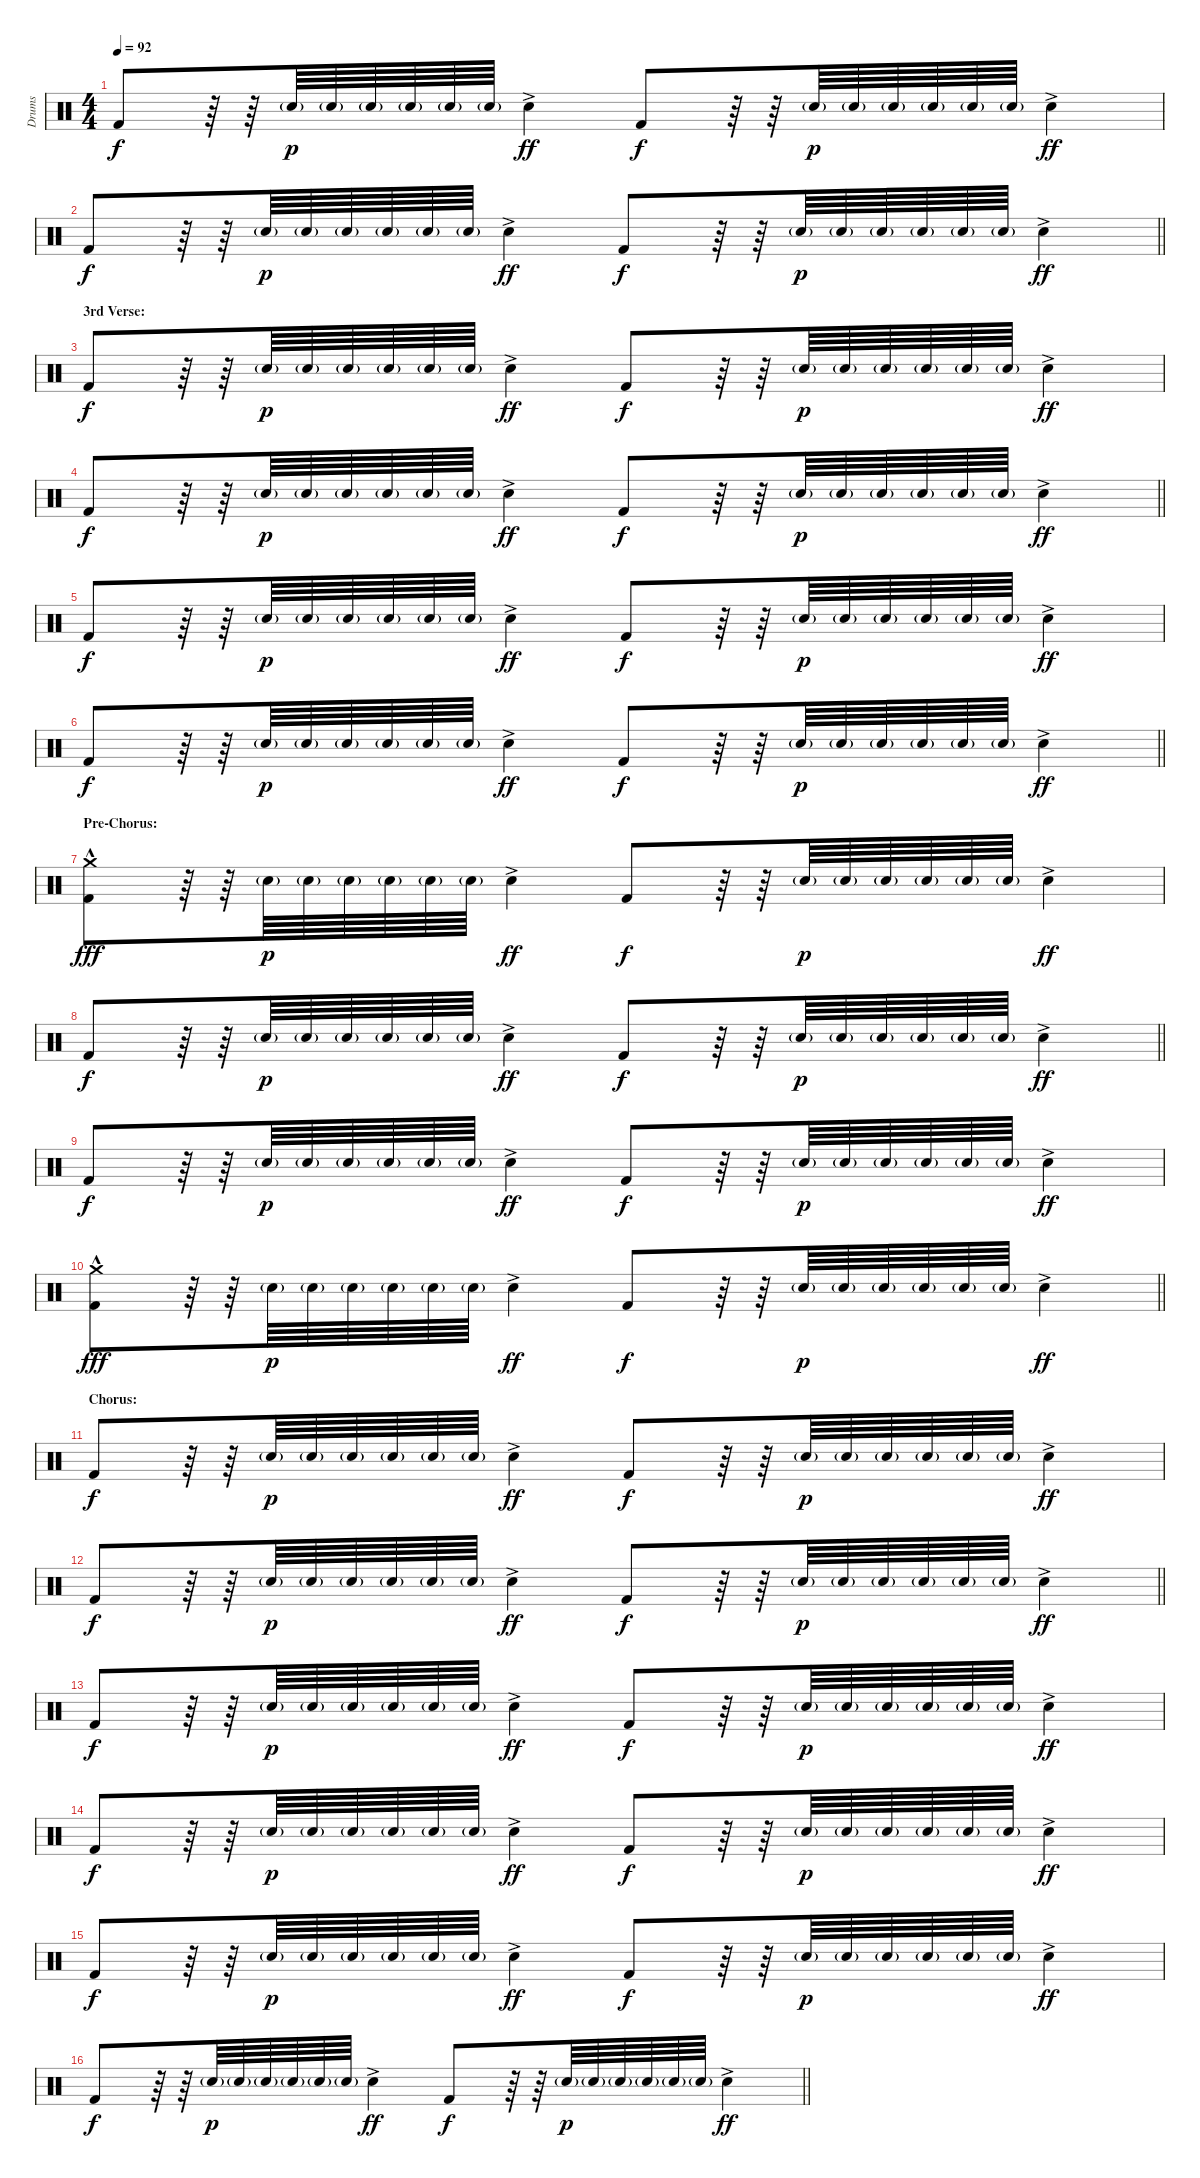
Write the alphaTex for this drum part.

\track ("Drums" "Drums") {instrument percussion}
\staff {score}
\articulation defaults
\ts (4 4)
\tempo 92
\clef neutral
\ks c "Kick (hit) 2".8{dy f}
r.64 r.64 "Snare (hit) 2"{g}.64{dy p} "Snare (hit) 2"{g}.64 "Snare (hit) 2"{g}.64 "Snare (hit) 2"{g}.64 "Snare (hit) 2"{g}.64 "Snare (hit) 2"{g}.64 "Snare (hit) 2"{ac}.4{dy ff} "Kick (hit) 2".8{dy f} r.64 r.64 "Snare (hit) 2"{g}.64{dy p} "Snare (hit) 2"{g}.64 "Snare (hit) 2"{g}.64 "Snare (hit) 2"{g}.64 "Snare (hit) 2"{g}.64 "Snare (hit) 2"{g}.64 "Snare (hit) 2"{ac}.4{dy ff} |
\barLineRight lightlight "Kick (hit) 2".8{dy f}
r.64 r.64 "Snare (hit) 2"{g}.64{dy p} "Snare (hit) 2"{g}.64 "Snare (hit) 2"{g}.64 "Snare (hit) 2"{g}.64 "Snare (hit) 2"{g}.64 "Snare (hit) 2"{g}.64 "Snare (hit) 2"{ac}.4{dy ff} "Kick (hit) 2".8{dy f} r.64 r.64 "Snare (hit) 2"{g}.64{dy p} "Snare (hit) 2"{g}.64 "Snare (hit) 2"{g}.64 "Snare (hit) 2"{g}.64 "Snare (hit) 2"{g}.64 "Snare (hit) 2"{g}.64 "Snare (hit) 2"{ac}.4{dy ff} |
\section ("" "3rd Verse:")
"Kick (hit) 2".8{dy f} r.64 r.64 "Snare (hit) 2"{g}.64{dy p} "Snare (hit) 2"{g}.64 "Snare (hit) 2"{g}.64 "Snare (hit) 2"{g}.64 "Snare (hit) 2"{g}.64 "Snare (hit) 2"{g}.64 "Snare (hit) 2"{ac}.4{dy ff} "Kick (hit) 2".8{dy f} r.64 r.64 "Snare (hit) 2"{g}.64{dy p} "Snare (hit) 2"{g}.64 "Snare (hit) 2"{g}.64 "Snare (hit) 2"{g}.64 "Snare (hit) 2"{g}.64 "Snare (hit) 2"{g}.64 "Snare (hit) 2"{ac}.4{dy ff} |
\barLineRight lightlight "Kick (hit) 2".8{dy f}
r.64 r.64 "Snare (hit) 2"{g}.64{dy p} "Snare (hit) 2"{g}.64 "Snare (hit) 2"{g}.64 "Snare (hit) 2"{g}.64 "Snare (hit) 2"{g}.64 "Snare (hit) 2"{g}.64 "Snare (hit) 2"{ac}.4{dy ff} "Kick (hit) 2".8{dy f} r.64 r.64 "Snare (hit) 2"{g}.64{dy p} "Snare (hit) 2"{g}.64 "Snare (hit) 2"{g}.64 "Snare (hit) 2"{g}.64 "Snare (hit) 2"{g}.64 "Snare (hit) 2"{g}.64 "Snare (hit) 2"{ac}.4{dy ff} |
"Kick (hit) 2".8{dy f} r.64 r.64 "Snare (hit) 2"{g}.64{dy p} "Snare (hit) 2"{g}.64 "Snare (hit) 2"{g}.64 "Snare (hit) 2"{g}.64 "Snare (hit) 2"{g}.64 "Snare (hit) 2"{g}.64 "Snare (hit) 2"{ac}.4{dy ff} "Kick (hit) 2".8{dy f} r.64 r.64 "Snare (hit) 2"{g}.64{dy p} "Snare (hit) 2"{g}.64 "Snare (hit) 2"{g}.64 "Snare (hit) 2"{g}.64 "Snare (hit) 2"{g}.64 "Snare (hit) 2"{g}.64 "Snare (hit) 2"{ac}.4{dy ff} |
\barLineRight lightlight "Kick (hit) 2".8{dy f}
r.64 r.64 "Snare (hit) 2"{g}.64{dy p} "Snare (hit) 2"{g}.64 "Snare (hit) 2"{g}.64 "Snare (hit) 2"{g}.64 "Snare (hit) 2"{g}.64 "Snare (hit) 2"{g}.64 "Snare (hit) 2"{ac}.4{dy ff} "Kick (hit) 2".8{dy f} r.64 r.64 "Snare (hit) 2"{g}.64{dy p} "Snare (hit) 2"{g}.64 "Snare (hit) 2"{g}.64 "Snare (hit) 2"{g}.64 "Snare (hit) 2"{g}.64 "Snare (hit) 2"{g}.64 "Snare (hit) 2"{ac}.4{dy ff} |
\section ("" "Pre-Chorus:")
("Crash medium (hit)"{hac} "Kick (hit) 2").8{dy fff} r.64 r.64 "Snare (hit) 2"{g}.64{dy p} "Snare (hit) 2"{g}.64 "Snare (hit) 2"{g}.64 "Snare (hit) 2"{g}.64 "Snare (hit) 2"{g}.64 "Snare (hit) 2"{g}.64 "Snare (hit) 2"{ac}.4{dy ff} "Kick (hit) 2".8{dy f} r.64 r.64 "Snare (hit) 2"{g}.64{dy p} "Snare (hit) 2"{g}.64 "Snare (hit) 2"{g}.64 "Snare (hit) 2"{g}.64 "Snare (hit) 2"{g}.64 "Snare (hit) 2"{g}.64 "Snare (hit) 2"{ac}.4{dy ff} |
\barLineRight lightlight "Kick (hit) 2".8{dy f}
r.64 r.64 "Snare (hit) 2"{g}.64{dy p} "Snare (hit) 2"{g}.64 "Snare (hit) 2"{g}.64 "Snare (hit) 2"{g}.64 "Snare (hit) 2"{g}.64 "Snare (hit) 2"{g}.64 "Snare (hit) 2"{ac}.4{dy ff} "Kick (hit) 2".8{dy f} r.64 r.64 "Snare (hit) 2"{g}.64{dy p} "Snare (hit) 2"{g}.64 "Snare (hit) 2"{g}.64 "Snare (hit) 2"{g}.64 "Snare (hit) 2"{g}.64 "Snare (hit) 2"{g}.64 "Snare (hit) 2"{ac}.4{dy ff} |
"Kick (hit) 2".8{dy f} r.64 r.64 "Snare (hit) 2"{g}.64{dy p} "Snare (hit) 2"{g}.64 "Snare (hit) 2"{g}.64 "Snare (hit) 2"{g}.64 "Snare (hit) 2"{g}.64 "Snare (hit) 2"{g}.64 "Snare (hit) 2"{ac}.4{dy ff} "Kick (hit) 2".8{dy f} r.64 r.64 "Snare (hit) 2"{g}.64{dy p} "Snare (hit) 2"{g}.64 "Snare (hit) 2"{g}.64 "Snare (hit) 2"{g}.64 "Snare (hit) 2"{g}.64 "Snare (hit) 2"{g}.64 "Snare (hit) 2"{ac}.4{dy ff} |
\barLineRight lightlight
("Crash medium (hit)"{hac} "Kick (hit) 2").8{dy fff} r.64 r.64 "Snare (hit) 2"{g}.64{dy p} "Snare (hit) 2"{g}.64 "Snare (hit) 2"{g}.64 "Snare (hit) 2"{g}.64 "Snare (hit) 2"{g}.64 "Snare (hit) 2"{g}.64 "Snare (hit) 2"{ac}.4{dy ff} "Kick (hit) 2".8{dy f} r.64 r.64 "Snare (hit) 2"{g}.64{dy p} "Snare (hit) 2"{g}.64 "Snare (hit) 2"{g}.64 "Snare (hit) 2"{g}.64 "Snare (hit) 2"{g}.64 "Snare (hit) 2"{g}.64 "Snare (hit) 2"{ac}.4{dy ff} |
\section ("" "Chorus:")
"Kick (hit) 2".8{dy f} r.64 r.64 "Snare (hit) 2"{g}.64{dy p} "Snare (hit) 2"{g}.64 "Snare (hit) 2"{g}.64 "Snare (hit) 2"{g}.64 "Snare (hit) 2"{g}.64 "Snare (hit) 2"{g}.64 "Snare (hit) 2"{ac}.4{dy ff} "Kick (hit) 2".8{dy f} r.64 r.64 "Snare (hit) 2"{g}.64{dy p} "Snare (hit) 2"{g}.64 "Snare (hit) 2"{g}.64 "Snare (hit) 2"{g}.64 "Snare (hit) 2"{g}.64 "Snare (hit) 2"{g}.64 "Snare (hit) 2"{ac}.4{dy ff} |
\barLineRight lightlight "Kick (hit) 2".8{dy f}
r.64 r.64 "Snare (hit) 2"{g}.64{dy p} "Snare (hit) 2"{g}.64 "Snare (hit) 2"{g}.64 "Snare (hit) 2"{g}.64 "Snare (hit) 2"{g}.64 "Snare (hit) 2"{g}.64 "Snare (hit) 2"{ac}.4{dy ff} "Kick (hit) 2".8{dy f} r.64 r.64 "Snare (hit) 2"{g}.64{dy p} "Snare (hit) 2"{g}.64 "Snare (hit) 2"{g}.64 "Snare (hit) 2"{g}.64 "Snare (hit) 2"{g}.64 "Snare (hit) 2"{g}.64 "Snare (hit) 2"{ac}.4{dy ff} |
"Kick (hit) 2".8{dy f} r.64 r.64 "Snare (hit) 2"{g}.64{dy p} "Snare (hit) 2"{g}.64 "Snare (hit) 2"{g}.64 "Snare (hit) 2"{g}.64 "Snare (hit) 2"{g}.64 "Snare (hit) 2"{g}.64 "Snare (hit) 2"{ac}.4{dy ff} "Kick (hit) 2".8{dy f} r.64 r.64 "Snare (hit) 2"{g}.64{dy p} "Snare (hit) 2"{g}.64 "Snare (hit) 2"{g}.64 "Snare (hit) 2"{g}.64 "Snare (hit) 2"{g}.64 "Snare (hit) 2"{g}.64 "Snare (hit) 2"{ac}.4{dy ff} |
"Kick (hit) 2".8{dy f} r.64 r.64 "Snare (hit) 2"{g}.64{dy p} "Snare (hit) 2"{g}.64 "Snare (hit) 2"{g}.64 "Snare (hit) 2"{g}.64 "Snare (hit) 2"{g}.64 "Snare (hit) 2"{g}.64 "Snare (hit) 2"{ac}.4{dy ff} "Kick (hit) 2".8{dy f} r.64 r.64 "Snare (hit) 2"{g}.64{dy p} "Snare (hit) 2"{g}.64 "Snare (hit) 2"{g}.64 "Snare (hit) 2"{g}.64 "Snare (hit) 2"{g}.64 "Snare (hit) 2"{g}.64 "Snare (hit) 2"{ac}.4{dy ff} |
"Kick (hit) 2".8{dy f} r.64 r.64 "Snare (hit) 2"{g}.64{dy p} "Snare (hit) 2"{g}.64 "Snare (hit) 2"{g}.64 "Snare (hit) 2"{g}.64 "Snare (hit) 2"{g}.64 "Snare (hit) 2"{g}.64 "Snare (hit) 2"{ac}.4{dy ff} "Kick (hit) 2".8{dy f} r.64 r.64 "Snare (hit) 2"{g}.64{dy p} "Snare (hit) 2"{g}.64 "Snare (hit) 2"{g}.64 "Snare (hit) 2"{g}.64 "Snare (hit) 2"{g}.64 "Snare (hit) 2"{g}.64 "Snare (hit) 2"{ac}.4{dy ff} |
\barLineRight lightlight "Kick (hit) 2".8{dy f}
r.64 r.64 "Snare (hit) 2"{g}.64{dy p} "Snare (hit) 2"{g}.64 "Snare (hit) 2"{g}.64 "Snare (hit) 2"{g}.64 "Snare (hit) 2"{g}.64 "Snare (hit) 2"{g}.64 "Snare (hit) 2"{ac}.4{dy ff} "Kick (hit) 2".8{dy f} r.64 r.64 "Snare (hit) 2"{g}.64{dy p} "Snare (hit) 2"{g}.64 "Snare (hit) 2"{g}.64 "Snare (hit) 2"{g}.64 "Snare (hit) 2"{g}.64 "Snare (hit) 2"{g}.64 "Snare (hit) 2"{ac}.4{dy ff}
